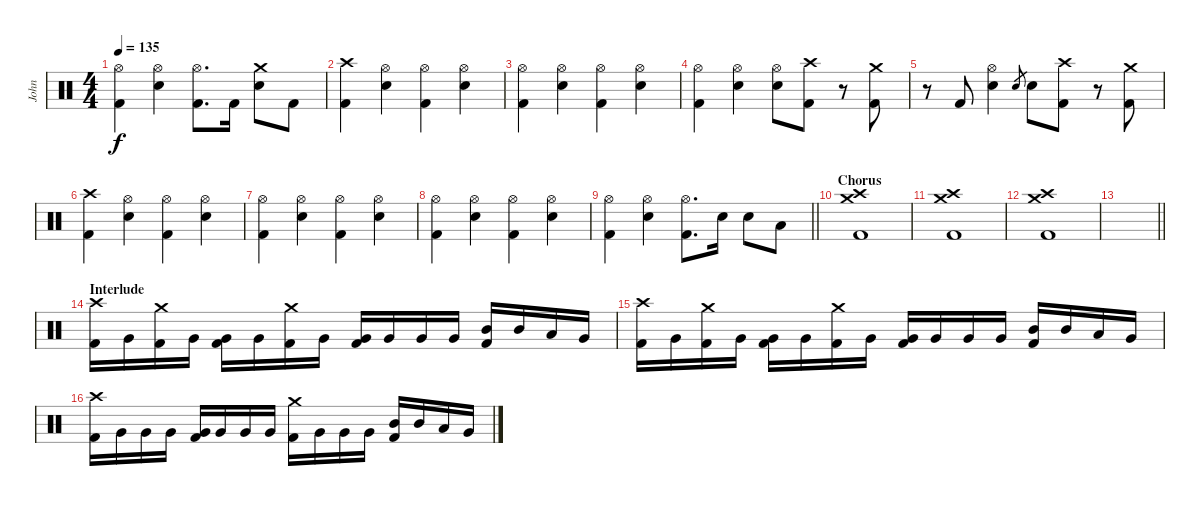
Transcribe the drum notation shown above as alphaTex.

\track ("John" "John") {instrument percussion}
\staff {score}
\articulation defaults
\ts (4 4)
\tempo 135
\clef neutral
\ks c
("Hi-Hat (open)" "Kick (hit) 2").4{dy f} ("Hi-Hat (open)" "Electric Snare (hit)").4 ("Hi-Hat (open)" "Kick (hit) 2").8{d} "Kick (hit) 2".16 ("Crash medium (hit)" "Electric Snare (hit)").8 "Kick (hit) 2".8 |
("Crash high (hit)" "Kick (hit) 2").4 ("Hi-Hat (open)" "Electric Snare (hit)").4 ("Hi-Hat (open)" "Kick (hit) 2").4 ("Hi-Hat (open)" "Electric Snare (hit)").4 |
("Hi-Hat (open)" "Kick (hit) 2").4 ("Hi-Hat (open)" "Electric Snare (hit)").4 ("Hi-Hat (open)" "Kick (hit) 2").4 ("Hi-Hat (open)" "Electric Snare (hit)").4 |
("Hi-Hat (open)" "Kick (hit) 2").4 ("Hi-Hat (open)" "Electric Snare (hit)").4 ("Hi-Hat (open)" "Electric Snare (hit)").8 ("Crash high (hit)" "Kick (hit) 2").8 r.8 ("Crash medium (hit)" "Kick (hit) 2").8 |
r.8 "Kick (hit) 2".8 ("Hi-Hat (open)" "Electric Snare (hit)").4 "Electric Snare (hit)".8{gr} "Electric Snare (hit)".8 ("Crash high (hit)" "Kick (hit) 2").8 r.8 ("Crash medium (hit)" "Kick (hit) 2").8 |
("Crash high (hit)" "Kick (hit) 2").4 ("Hi-Hat (open)" "Electric Snare (hit)").4 ("Hi-Hat (open)" "Kick (hit) 2").4 ("Hi-Hat (open)" "Electric Snare (hit)").4 |
("Hi-Hat (open)" "Kick (hit) 2").4 ("Hi-Hat (open)" "Electric Snare (hit)").4 ("Hi-Hat (open)" "Kick (hit) 2").4 ("Hi-Hat (open)" "Electric Snare (hit)").4 |
("Hi-Hat (open)" "Kick (hit) 2").4 ("Hi-Hat (open)" "Electric Snare (hit)").4 ("Hi-Hat (open)" "Kick (hit) 2").4 ("Hi-Hat (open)" "Electric Snare (hit)").4 |
\barLineRight lightlight
("Hi-Hat (open)" "Kick (hit) 2").4 ("Hi-Hat (open)" "Electric Snare (hit)").4 ("Hi-Hat (open)" "Kick (hit) 2").8{d} "Electric Snare (hit)".16 "Electric Snare (hit)".8 "Low Tom (hit)".8 |
\section ("" "Chorus")
("Crash high (hit)" "Crash medium (hit)" "Kick (hit) 2").1 |
("Crash high (hit)" "Crash medium (hit)" "Kick (hit) 2").1 |
("Crash high (hit)" "Crash medium (hit)" "Kick (hit) 2").1 |
\barLineRight lightlight
|
\section ("" "Interlude")
("Crash high (hit)" "Kick (hit) 2").16 "Very Low Tom (hit)".16 ("Crash medium (hit)" "Kick (hit) 2").16 "Very Low Tom (hit)".16 ("Very Low Tom (hit)" "Kick (hit) 2").16 "Very Low Tom (hit)".16 ("Crash medium (hit)" "Kick (hit) 2").16 "Very Low Tom (hit)".16 ("Very Low Tom (hit)" "Kick (hit) 2").16 "Very Low Tom (hit)".16 "Very Low Tom (hit)".16 "Very Low Tom (hit)".16 ("Mid Tom (hit)" "Kick (hit) 2").16 "Mid Tom (hit)".16 "Low Tom (hit)".16 "Very Low Tom (hit)".16 |
("Crash high (hit)" "Kick (hit) 2").16 "Very Low Tom (hit)".16 ("Crash medium (hit)" "Kick (hit) 2").16 "Very Low Tom (hit)".16 ("Very Low Tom (hit)" "Kick (hit) 2").16 "Very Low Tom (hit)".16 ("Crash medium (hit)" "Kick (hit) 2").16 "Very Low Tom (hit)".16 ("Very Low Tom (hit)" "Kick (hit) 2").16 "Very Low Tom (hit)".16 "Very Low Tom (hit)".16 "Very Low Tom (hit)".16 ("Mid Tom (hit)" "Kick (hit) 2").16 "Mid Tom (hit)".16 "Low Tom (hit)".16 "Very Low Tom (hit)".16 |
("Crash high (hit)" "Kick (hit) 2").16 "Very Low Tom (hit)".16 "Very Low Tom (hit)".16 "Very Low Tom (hit)".16 ("Very Low Tom (hit)" "Kick (hit) 2").16 "Very Low Tom (hit)".16 "Very Low Tom (hit)".16 "Very Low Tom (hit)".16 ("Crash medium (hit)" "Kick (hit) 2").16 "Very Low Tom (hit)".16 "Very Low Tom (hit)".16 "Very Low Tom (hit)".16 ("Mid Tom (hit)" "Kick (hit) 2").16 "Mid Tom (hit)".16 "Low Tom (hit)".16 "Very Low Tom (hit)".16
